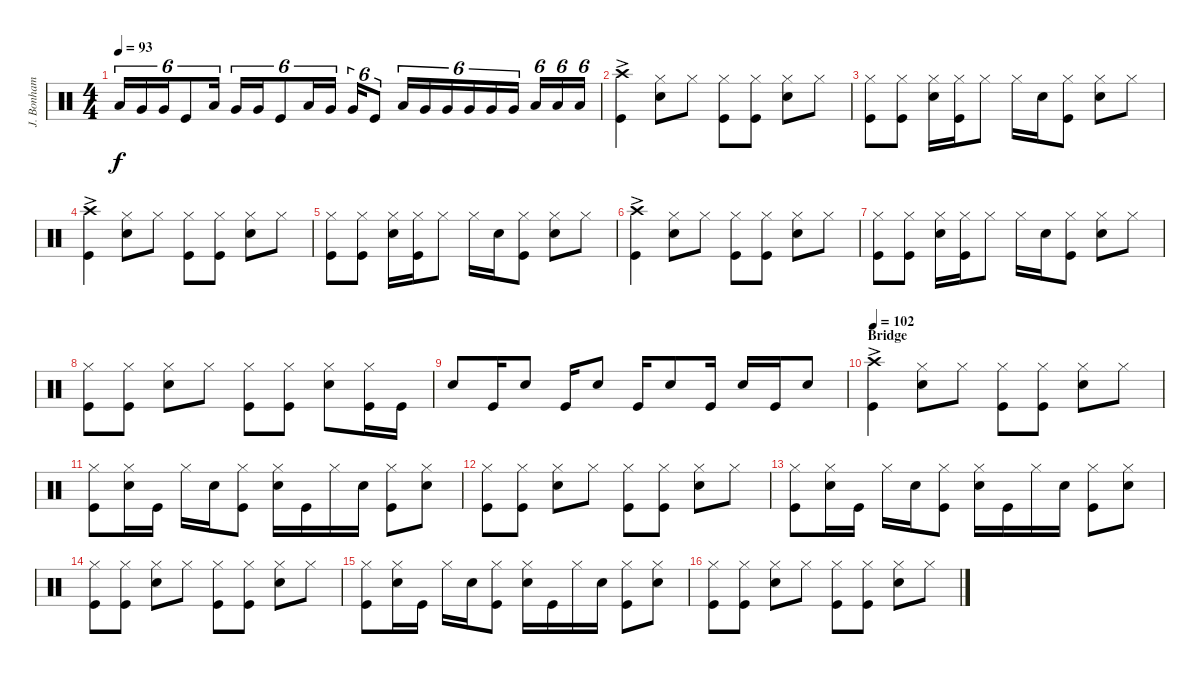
\track ("J. Bonham" "J. Bonham") {instrument percussion}
\staff {score}
\articulation defaults
\ts (4 4)
\tempo 93
\clef neutral
\ks c "Low Tom (hit)".16{tu (6 4) dy f} "Very Low Tom (hit)".16{tu (6 4)} "Very Low Tom (hit)".16{tu (6 4)} "Kick (hit)".8{tu (6 4)} "Low Tom (hit)".16{tu (6 4)} "Very Low Tom (hit)".16{tu (6 4)} "Very Low Tom (hit)".16{tu (6 4)} "Kick (hit)".8{tu (6 4)} "Low Tom (hit)".16{tu (6 4)} "Very Low Tom (hit)".16{tu (6 4)} "Very Low Tom (hit)".16{tu (6 4)} "Kick (hit)".8{tu (6 4)} "Low Tom (hit)".16{tu (6 4)} "Very Low Tom (hit)".16{tu (6 4)} "Very Low Tom (hit)".16{tu (6 4)} "Very Low Tom (hit)".16{tu (6 4)} "Very Low Tom (hit)".16{tu (6 4)} "Very Low Tom (hit)".16{tu (6 4)} "Low Tom (hit)".16{tu (6 4)} "Low Tom (hit)".16{tu (6 4)} "Low Tom (hit)".16{tu (6 4)}
|
("Crash high (hit)"{ac} "Kick (hit)").4 ("Hi-Hat (closed)" "Snare (hit) 2").8 "Hi-Hat (closed)".8 ("Hi-Hat (closed)" "Kick (hit)").8 ("Hi-Hat (closed)" "Kick (hit)").8 ("Hi-Hat (closed)" "Snare (hit) 2").8 "Hi-Hat (closed)".8 |
("Hi-Hat (closed)" "Kick (hit)").8 ("Hi-Hat (closed)" "Kick (hit)").8 ("Hi-Hat (closed)" "Snare (hit) 2").16 ("Hi-Hat (closed)" "Kick (hit)").16 "Hi-Hat (closed)".8 "Hi-Hat (closed)".16 "Snare (hit) 2".16 ("Hi-Hat (closed)" "Kick (hit)").8 ("Hi-Hat (closed)" "Snare (hit) 2").8 "Hi-Hat (closed)".8 |
("Crash high (hit)"{ac} "Kick (hit)").4 ("Hi-Hat (closed)" "Snare (hit) 2").8 "Hi-Hat (closed)".8 ("Hi-Hat (closed)" "Kick (hit)").8 ("Hi-Hat (closed)" "Kick (hit)").8 ("Hi-Hat (closed)" "Snare (hit) 2").8 "Hi-Hat (closed)".8 |
("Hi-Hat (closed)" "Kick (hit)").8 ("Hi-Hat (closed)" "Kick (hit)").8 ("Hi-Hat (closed)" "Snare (hit) 2").16 ("Hi-Hat (closed)" "Kick (hit)").16 "Hi-Hat (closed)".8 "Hi-Hat (closed)".16 "Snare (hit) 2".16 ("Hi-Hat (closed)" "Kick (hit)").8 ("Hi-Hat (closed)" "Snare (hit) 2").8 "Hi-Hat (closed)".8 |
("Crash high (hit)"{ac} "Kick (hit)").4 ("Hi-Hat (closed)" "Snare (hit) 2").8 "Hi-Hat (closed)".8 ("Hi-Hat (closed)" "Kick (hit)").8 ("Hi-Hat (closed)" "Kick (hit)").8 ("Hi-Hat (closed)" "Snare (hit) 2").8 "Hi-Hat (closed)".8 |
("Hi-Hat (closed)" "Kick (hit)").8 ("Hi-Hat (closed)" "Kick (hit)").8 ("Hi-Hat (closed)" "Snare (hit) 2").16 ("Hi-Hat (closed)" "Kick (hit)").16 "Hi-Hat (closed)".8 "Hi-Hat (closed)".16 "Snare (hit) 2".16 ("Hi-Hat (closed)" "Kick (hit)").8 ("Hi-Hat (closed)" "Snare (hit) 2").8 "Hi-Hat (closed)".8 |
("Hi-Hat (closed)" "Kick (hit)").8 ("Hi-Hat (closed)" "Kick (hit)").8 ("Hi-Hat (closed)" "Snare (hit) 2").8 "Hi-Hat (closed)".8 ("Hi-Hat (closed)" "Kick (hit)").8 ("Hi-Hat (closed)" "Kick (hit)").8 ("Hi-Hat (closed)" "Snare (hit) 2").8 ("Hi-Hat (closed)" "Kick (hit)").16 "Kick (hit)".16 |
"Snare (hit) 2".8 "Kick (hit)".16 "Snare (hit) 2".8 "Kick (hit)".16 "Snare (hit) 2".8 "Kick (hit)".16 "Snare (hit) 2".8 "Kick (hit)".16 "Snare (hit) 2".16 "Kick (hit)".16 "Snare (hit) 2".8 |
\section ("" "Bridge")
\tempo 102
("Crash high (hit)"{ac} "Kick (hit)").4 ("Hi-Hat (closed)" "Snare (hit) 2").8 "Hi-Hat (closed)".8 ("Hi-Hat (closed)" "Kick (hit)").8 ("Hi-Hat (closed)" "Kick (hit)").8 ("Hi-Hat (closed)" "Snare (hit) 2").8 "Hi-Hat (closed)".8 |
("Hi-Hat (closed)" "Kick (hit)").8 ("Hi-Hat (closed)" "Snare (hit) 2").16 "Kick (hit)".16 "Hi-Hat (closed)".16 "Snare (hit) 2".16 ("Hi-Hat (closed)" "Kick (hit)").8 ("Hi-Hat (closed)" "Snare (hit) 2").16 "Kick (hit)".16 "Hi-Hat (closed)".16 "Snare (hit) 2".16 ("Hi-Hat (closed)" "Kick (hit)").8 ("Hi-Hat (closed)" "Snare (hit) 2").8 |
("Hi-Hat (closed)" "Kick (hit)").8 ("Hi-Hat (closed)" "Kick (hit)").8 ("Hi-Hat (closed)" "Snare (hit) 2").8 "Hi-Hat (closed)".8 ("Hi-Hat (closed)" "Kick (hit)").8 ("Hi-Hat (closed)" "Kick (hit)").8 ("Hi-Hat (closed)" "Snare (hit) 2").8 "Hi-Hat (closed)".8 |
("Hi-Hat (closed)" "Kick (hit)").8 ("Hi-Hat (closed)" "Snare (hit) 2").16 "Kick (hit)".16 "Hi-Hat (closed)".16 "Snare (hit) 2".16 ("Hi-Hat (closed)" "Kick (hit)").8 ("Hi-Hat (closed)" "Snare (hit) 2").16 "Kick (hit)".16 "Hi-Hat (closed)".16 "Snare (hit) 2".16 ("Hi-Hat (closed)" "Kick (hit)").8 ("Hi-Hat (closed)" "Snare (hit) 2").8 |
("Hi-Hat (closed)" "Kick (hit)").8 ("Hi-Hat (closed)" "Kick (hit)").8 ("Hi-Hat (closed)" "Snare (hit) 2").8 "Hi-Hat (closed)".8 ("Hi-Hat (closed)" "Kick (hit)").8 ("Hi-Hat (closed)" "Kick (hit)").8 ("Hi-Hat (closed)" "Snare (hit) 2").8 "Hi-Hat (closed)".8 |
("Hi-Hat (closed)" "Kick (hit)").8 ("Hi-Hat (closed)" "Snare (hit) 2").16 "Kick (hit)".16 "Hi-Hat (closed)".16 "Snare (hit) 2".16 ("Hi-Hat (closed)" "Kick (hit)").8 ("Hi-Hat (closed)" "Snare (hit) 2").16 "Kick (hit)".16 "Hi-Hat (closed)".16 "Snare (hit) 2".16 ("Hi-Hat (closed)" "Kick (hit)").8 ("Hi-Hat (closed)" "Snare (hit) 2").8 |
("Hi-Hat (closed)" "Kick (hit)").8 ("Hi-Hat (closed)" "Kick (hit)").8 ("Hi-Hat (closed)" "Snare (hit) 2").8 "Hi-Hat (closed)".8 ("Hi-Hat (closed)" "Kick (hit)").8 ("Hi-Hat (closed)" "Kick (hit)").8 ("Hi-Hat (closed)" "Snare (hit) 2").8 "Hi-Hat (closed)".8
